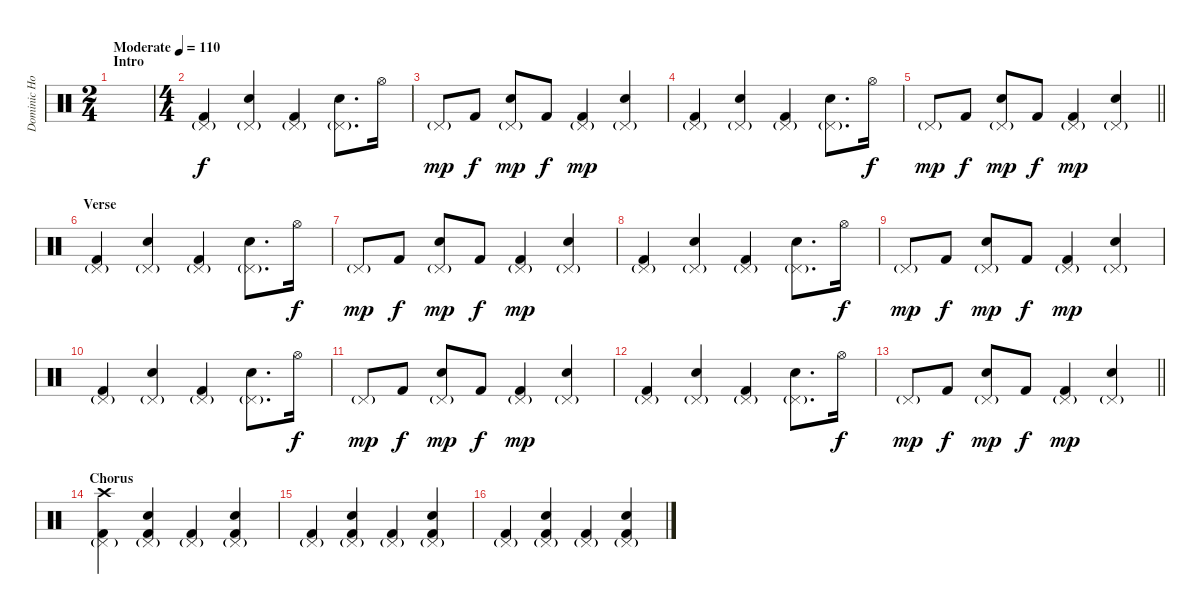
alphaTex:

\track ("Dominic Howard (Drums)" "Dominic Ho") {instrument percussion}
\staff {score}
\articulation defaults
\ts (2 4)
\section ("" "Intro")
\tempo (110 "Moderate")
\clef neutral
\ks c
|
\ts (4 4)
("Pedal Hi-Hat (hit)"{g} "Kick (hit) 2").4 ("Pedal Hi-Hat (hit)"{g} "Snare (hit) 2").4 ("Pedal Hi-Hat (hit)"{g} "Kick (hit) 2").4 ("Pedal Hi-Hat (hit)"{g} "Snare (hit) 2").8{d} "Hi-Hat (open)".16{dy f} |
"Pedal Hi-Hat (hit)"{g}.8{dy mp} "Kick (hit) 2".8{dy f} ("Pedal Hi-Hat (hit)"{g} "Snare (hit) 2").8{dy mp} "Kick (hit) 2".8{dy f} ("Pedal Hi-Hat (hit)"{g} "Kick (hit) 2").4{dy mp} ("Pedal Hi-Hat (hit)"{g} "Snare (hit) 2").4 |
("Pedal Hi-Hat (hit)"{g} "Kick (hit) 2").4 ("Pedal Hi-Hat (hit)"{g} "Snare (hit) 2").4 ("Pedal Hi-Hat (hit)"{g} "Kick (hit) 2").4 ("Pedal Hi-Hat (hit)"{g} "Snare (hit) 2").8{d} "Hi-Hat (open)".16{dy f} |
\barLineRight lightlight "Pedal Hi-Hat (hit)"{g}.8{dy mp} "Kick (hit) 2".8{dy f}
("Pedal Hi-Hat (hit)"{g} "Snare (hit) 2").8{dy mp} "Kick (hit) 2".8{dy f} ("Pedal Hi-Hat (hit)"{g} "Kick (hit) 2").4{dy mp} ("Pedal Hi-Hat (hit)"{g} "Snare (hit) 2").4 |
\section ("" "Verse")
("Pedal Hi-Hat (hit)"{g} "Kick (hit) 2").4 ("Pedal Hi-Hat (hit)"{g} "Snare (hit) 2").4 ("Pedal Hi-Hat (hit)"{g} "Kick (hit) 2").4 ("Pedal Hi-Hat (hit)"{g} "Snare (hit) 2").8{d} "Hi-Hat (open)".16{dy f} |
"Pedal Hi-Hat (hit)"{g}.8{dy mp} "Kick (hit) 2".8{dy f} ("Pedal Hi-Hat (hit)"{g} "Snare (hit) 2").8{dy mp} "Kick (hit) 2".8{dy f} ("Pedal Hi-Hat (hit)"{g} "Kick (hit) 2").4{dy mp} ("Pedal Hi-Hat (hit)"{g} "Snare (hit) 2").4 |
("Pedal Hi-Hat (hit)"{g} "Kick (hit) 2").4 ("Pedal Hi-Hat (hit)"{g} "Snare (hit) 2").4 ("Pedal Hi-Hat (hit)"{g} "Kick (hit) 2").4 ("Pedal Hi-Hat (hit)"{g} "Snare (hit) 2").8{d} "Hi-Hat (open)".16{dy f} |
"Pedal Hi-Hat (hit)"{g}.8{dy mp} "Kick (hit) 2".8{dy f} ("Pedal Hi-Hat (hit)"{g} "Snare (hit) 2").8{dy mp} "Kick (hit) 2".8{dy f} ("Pedal Hi-Hat (hit)"{g} "Kick (hit) 2").4{dy mp} ("Pedal Hi-Hat (hit)"{g} "Snare (hit) 2").4 |
("Pedal Hi-Hat (hit)"{g} "Kick (hit) 2").4 ("Pedal Hi-Hat (hit)"{g} "Snare (hit) 2").4 ("Pedal Hi-Hat (hit)"{g} "Kick (hit) 2").4 ("Pedal Hi-Hat (hit)"{g} "Snare (hit) 2").8{d} "Hi-Hat (open)".16{dy f} |
"Pedal Hi-Hat (hit)"{g}.8{dy mp} "Kick (hit) 2".8{dy f} ("Pedal Hi-Hat (hit)"{g} "Snare (hit) 2").8{dy mp} "Kick (hit) 2".8{dy f} ("Pedal Hi-Hat (hit)"{g} "Kick (hit) 2").4{dy mp} ("Pedal Hi-Hat (hit)"{g} "Snare (hit) 2").4 |
("Pedal Hi-Hat (hit)"{g} "Kick (hit) 2").4 ("Pedal Hi-Hat (hit)"{g} "Snare (hit) 2").4 ("Pedal Hi-Hat (hit)"{g} "Kick (hit) 2").4 ("Pedal Hi-Hat (hit)"{g} "Snare (hit) 2").8{d} "Hi-Hat (open)".16{dy f} |
\barLineRight lightlight "Pedal Hi-Hat (hit)"{g}.8{dy mp} "Kick (hit) 2".8{dy f}
("Pedal Hi-Hat (hit)"{g} "Snare (hit) 2").8{dy mp} "Kick (hit) 2".8{dy f} ("Pedal Hi-Hat (hit)"{g} "Kick (hit) 2").4{dy mp} ("Pedal Hi-Hat (hit)"{g} "Snare (hit) 2").4 |
\section ("" "Chorus")
("Pedal Hi-Hat (hit)"{g} "Crash high (hit)" "Kick (hit) 2").4 ("Pedal Hi-Hat (hit)"{g} "Snare (hit) 2" "Kick (hit) 2").4 ("Pedal Hi-Hat (hit)"{g} "Kick (hit) 2").4 ("Pedal Hi-Hat (hit)"{g} "Snare (hit) 2" "Kick (hit) 2").4 |
("Pedal Hi-Hat (hit)"{g} "Kick (hit) 2").4 ("Pedal Hi-Hat (hit)"{g} "Snare (hit) 2" "Kick (hit) 2").4 ("Pedal Hi-Hat (hit)"{g} "Kick (hit) 2").4 ("Pedal Hi-Hat (hit)"{g} "Snare (hit) 2" "Kick (hit) 2").4 |
("Pedal Hi-Hat (hit)"{g} "Kick (hit) 2").4 ("Pedal Hi-Hat (hit)"{g} "Snare (hit) 2" "Kick (hit) 2").4 ("Pedal Hi-Hat (hit)"{g} "Kick (hit) 2").4 ("Pedal Hi-Hat (hit)"{g} "Snare (hit) 2" "Kick (hit) 2").4
